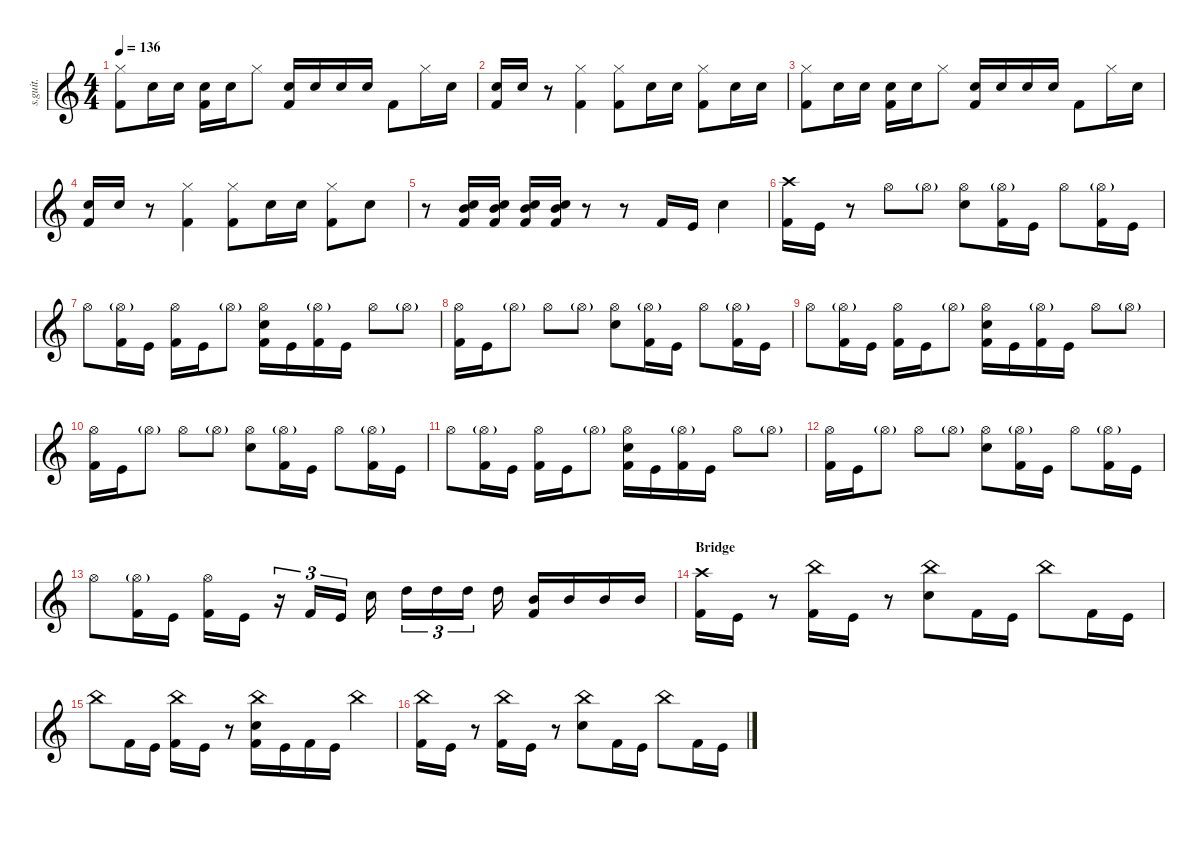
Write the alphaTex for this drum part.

\defaultSystemsLayout 4
\hideDynamics
\bracketExtendMode nobrackets
\track ("Joey Jordison" "s.guit.") {instrument percussion}
\staff {score}
\articulation defaults
\ts (4 4)
\tempo 136
\clef g2
\ks c
("Kick (hit) 2" "Hi-Hat (closed)").8{lyrics (0 "") lyrics (1 "") lyrics (2 "") lyrics (3 "") lyrics (4 "") dy fff} "Snare (hit) 2".16{lyrics (0 "") lyrics (1 "") lyrics (2 "") lyrics (3 "") lyrics (4 "")} "Snare (hit) 2".16{lyrics (0 "") lyrics (1 "") lyrics (2 "") lyrics (3 "") lyrics (4 "")} ("Snare (hit) 2" "Kick (hit) 2").16{lyrics (0 "") lyrics (1 "") lyrics (2 "") lyrics (3 "") lyrics (4 "")} "Snare (hit) 2".16{lyrics (0 "") lyrics (1 "") lyrics (2 "") lyrics (3 "") lyrics (4 "")} "Hi-Hat (closed)".8{lyrics (0 "") lyrics (1 "") lyrics (2 "") lyrics (3 "") lyrics (4 "")} ("Snare (hit) 2" "Kick (hit) 2").16{lyrics (0 "") lyrics (1 "") lyrics (2 "") lyrics (3 "") lyrics (4 "")} "Snare (hit) 2".16{lyrics (0 "") lyrics (1 "") lyrics (2 "") lyrics (3 "") lyrics (4 "")} "Snare (hit) 2".16{lyrics (0 "") lyrics (1 "") lyrics (2 "") lyrics (3 "") lyrics (4 "")} "Snare (hit) 2".16{lyrics (0 "") lyrics (1 "") lyrics (2 "") lyrics (3 "") lyrics (4 "")} "Kick (hit) 2".8{lyrics (0 "") lyrics (1 "") lyrics (2 "") lyrics (3 "") lyrics (4 "")} "Hi-Hat (closed)".16{lyrics (0 "") lyrics (1 "") lyrics (2 "") lyrics (3 "") lyrics (4 "")} "Snare (hit) 2".16{lyrics (0 "") lyrics (1 "") lyrics (2 "") lyrics (3 "") lyrics (4 "")} |
("Snare (hit) 2" "Kick (hit) 2").16{lyrics (0 "") lyrics (1 "") lyrics (2 "") lyrics (3 "") lyrics (4 "")} "Snare (hit) 2".16{lyrics (0 "") lyrics (1 "") lyrics (2 "") lyrics (3 "") lyrics (4 "")} r.8 ("Hi-Hat (closed)" "Kick (hit) 2").4{lyrics (0 "") lyrics (1 "") lyrics (2 "") lyrics (3 "") lyrics (4 "")} ("Kick (hit) 2" "Hi-Hat (closed)").8{lyrics (0 "") lyrics (1 "") lyrics (2 "") lyrics (3 "") lyrics (4 "")} "Snare (hit) 2".16{lyrics (0 "") lyrics (1 "") lyrics (2 "") lyrics (3 "") lyrics (4 "")} "Snare (hit) 2".16{lyrics (0 "") lyrics (1 "") lyrics (2 "") lyrics (3 "") lyrics (4 "")} ("Kick (hit) 2" "Hi-Hat (closed)").8{lyrics (0 "") lyrics (1 "") lyrics (2 "") lyrics (3 "") lyrics (4 "")} "Snare (hit) 2".16{lyrics (0 "") lyrics (1 "") lyrics (2 "") lyrics (3 "") lyrics (4 "")} "Snare (hit) 2".16{lyrics (0 "") lyrics (1 "") lyrics (2 "") lyrics (3 "") lyrics (4 "")} |
("Kick (hit) 2" "Hi-Hat (closed)").8{lyrics (0 "") lyrics (1 "") lyrics (2 "") lyrics (3 "") lyrics (4 "")} "Snare (hit) 2".16{lyrics (0 "") lyrics (1 "") lyrics (2 "") lyrics (3 "") lyrics (4 "")} "Snare (hit) 2".16{lyrics (0 "") lyrics (1 "") lyrics (2 "") lyrics (3 "") lyrics (4 "")} ("Snare (hit) 2" "Kick (hit) 2").16{lyrics (0 "") lyrics (1 "") lyrics (2 "") lyrics (3 "") lyrics (4 "")} "Snare (hit) 2".16{lyrics (0 "") lyrics (1 "") lyrics (2 "") lyrics (3 "") lyrics (4 "")} "Hi-Hat (closed)".8{lyrics (0 "") lyrics (1 "") lyrics (2 "") lyrics (3 "") lyrics (4 "")} ("Snare (hit) 2" "Kick (hit) 2").16{lyrics (0 "") lyrics (1 "") lyrics (2 "") lyrics (3 "") lyrics (4 "")} "Snare (hit) 2".16{lyrics (0 "") lyrics (1 "") lyrics (2 "") lyrics (3 "") lyrics (4 "")} "Snare (hit) 2".16{lyrics (0 "") lyrics (1 "") lyrics (2 "") lyrics (3 "") lyrics (4 "")} "Snare (hit) 2".16{lyrics (0 "") lyrics (1 "") lyrics (2 "") lyrics (3 "") lyrics (4 "")} "Kick (hit) 2".8{lyrics (0 "") lyrics (1 "") lyrics (2 "") lyrics (3 "") lyrics (4 "")} "Hi-Hat (closed)".16{lyrics (0 "") lyrics (1 "") lyrics (2 "") lyrics (3 "") lyrics (4 "")} "Snare (hit) 2".16{lyrics (0 "") lyrics (1 "") lyrics (2 "") lyrics (3 "") lyrics (4 "")} |
("Snare (hit) 2" "Kick (hit) 2").16{lyrics (0 "") lyrics (1 "") lyrics (2 "") lyrics (3 "") lyrics (4 "")} "Snare (hit) 2".16{lyrics (0 "") lyrics (1 "") lyrics (2 "") lyrics (3 "") lyrics (4 "")} r.8 ("Hi-Hat (closed)" "Kick (hit) 2").4{lyrics (0 "") lyrics (1 "") lyrics (2 "") lyrics (3 "") lyrics (4 "")} ("Kick (hit) 2" "Hi-Hat (closed)").8{lyrics (0 "") lyrics (1 "") lyrics (2 "") lyrics (3 "") lyrics (4 "")} "Snare (hit) 2".16{lyrics (0 "") lyrics (1 "") lyrics (2 "") lyrics (3 "") lyrics (4 "")} "Snare (hit) 2".16{lyrics (0 "") lyrics (1 "") lyrics (2 "") lyrics (3 "") lyrics (4 "")} ("Kick (hit) 2" "Hi-Hat (closed)").8{lyrics (0 "") lyrics (1 "") lyrics (2 "") lyrics (3 "") lyrics (4 "")} "Snare (hit) 2".8{lyrics (0 "") lyrics (1 "") lyrics (2 "") lyrics (3 "") lyrics (4 "")} |
r.8 ("Snare (hit) 2" "Kick (hit) 2" "Mid Tom (hit)").16{lyrics (0 "") lyrics (1 "") lyrics (2 "") lyrics (3 "") lyrics (4 "")} ("Snare (hit) 2" "Kick (hit) 2" "Mid Tom (hit)").16{lyrics (0 "") lyrics (1 "") lyrics (2 "") lyrics (3 "") lyrics (4 "")} ("Snare (hit) 2" "Kick (hit) 2" "Mid Tom (hit)").16{lyrics (0 "") lyrics (1 "") lyrics (2 "") lyrics (3 "") lyrics (4 "")} ("Snare (hit) 2" "Kick (hit) 2" "Mid Tom (hit)").16{lyrics (0 "") lyrics (1 "") lyrics (2 "") lyrics (3 "") lyrics (4 "")} r.8 r.8 "Kick (hit) 2".16{lyrics (0 "") lyrics (1 "") lyrics (2 "") lyrics (3 "") lyrics (4 "")} "Kick (hit)".16{lyrics (0 "") lyrics (1 "") lyrics (2 "") lyrics (3 "") lyrics (4 "")} "Snare (hit) 2".4{lyrics (0 "") lyrics (1 "") lyrics (2 "") lyrics (3 "") lyrics (4 "")} |
("Kick (hit) 2" "Crash high (hit)").16{lyrics (0 "") lyrics (1 "") lyrics (2 "") lyrics (3 "") lyrics (4 "")} "Kick (hit)".16{lyrics (0 "") lyrics (1 "") lyrics (2 "") lyrics (3 "") lyrics (4 "")} r.8 "Hi-Hat (open)".8{lyrics (0 "") lyrics (1 "") lyrics (2 "") lyrics (3 "") lyrics (4 "")} "Hi-Hat (open)"{g}.8{lyrics (0 "") lyrics (1 "") lyrics (2 "") lyrics (3 "") lyrics (4 "")} ("Hi-Hat (open)" "Snare (hit) 2").8{lyrics (0 "") lyrics (1 "") lyrics (2 "") lyrics (3 "") lyrics (4 "")} ("Kick (hit) 2" "Hi-Hat (open)"{g}).16{lyrics (0 "") lyrics (1 "") lyrics (2 "") lyrics (3 "") lyrics (4 "")} "Kick (hit)".16{lyrics (0 "") lyrics (1 "") lyrics (2 "") lyrics (3 "") lyrics (4 "")} "Hi-Hat (open)".8{lyrics (0 "") lyrics (1 "") lyrics (2 "") lyrics (3 "") lyrics (4 "")} ("Kick (hit) 2" "Hi-Hat (open)"{g}).16{lyrics (0 "") lyrics (1 "") lyrics (2 "") lyrics (3 "") lyrics (4 "")} "Kick (hit)".16{lyrics (0 "") lyrics (1 "") lyrics (2 "") lyrics (3 "") lyrics (4 "")} |
"Hi-Hat (open)".8{lyrics (0 "") lyrics (1 "") lyrics (2 "") lyrics (3 "") lyrics (4 "")} ("Kick (hit) 2" "Hi-Hat (open)"{g}).16{lyrics (0 "") lyrics (1 "") lyrics (2 "") lyrics (3 "") lyrics (4 "")} "Kick (hit)".16{lyrics (0 "") lyrics (1 "") lyrics (2 "") lyrics (3 "") lyrics (4 "")} ("Kick (hit) 2" "Hi-Hat (open)").16{lyrics (0 "") lyrics (1 "") lyrics (2 "") lyrics (3 "") lyrics (4 "")} "Kick (hit)".16{lyrics (0 "") lyrics (1 "") lyrics (2 "") lyrics (3 "") lyrics (4 "")} "Hi-Hat (open)"{g}.8{lyrics (0 "") lyrics (1 "") lyrics (2 "") lyrics (3 "") lyrics (4 "")} ("Snare (hit) 2" "Hi-Hat (open)" "Kick (hit) 2").16{lyrics (0 "") lyrics (1 "") lyrics (2 "") lyrics (3 "") lyrics (4 "")} "Kick (hit)".16{lyrics (0 "") lyrics (1 "") lyrics (2 "") lyrics (3 "") lyrics (4 "")} ("Kick (hit) 2" "Hi-Hat (open)"{g}).16{lyrics (0 "") lyrics (1 "") lyrics (2 "") lyrics (3 "") lyrics (4 "")} "Kick (hit)".16{lyrics (0 "") lyrics (1 "") lyrics (2 "") lyrics (3 "") lyrics (4 "")} "Hi-Hat (open)".8{lyrics (0 "") lyrics (1 "") lyrics (2 "") lyrics (3 "") lyrics (4 "")} "Hi-Hat (open)"{g}.8{lyrics (0 "") lyrics (1 "") lyrics (2 "") lyrics (3 "") lyrics (4 "")} |
("Kick (hit) 2" "Hi-Hat (open)").16{lyrics (0 "") lyrics (1 "") lyrics (2 "") lyrics (3 "") lyrics (4 "")} "Kick (hit)".16{lyrics (0 "") lyrics (1 "") lyrics (2 "") lyrics (3 "") lyrics (4 "")} "Hi-Hat (open)"{g}.8{lyrics (0 "") lyrics (1 "") lyrics (2 "") lyrics (3 "") lyrics (4 "")} "Hi-Hat (open)".8{lyrics (0 "") lyrics (1 "") lyrics (2 "") lyrics (3 "") lyrics (4 "")} "Hi-Hat (open)"{g}.8{lyrics (0 "") lyrics (1 "") lyrics (2 "") lyrics (3 "") lyrics (4 "")} ("Hi-Hat (open)" "Snare (hit) 2").8{lyrics (0 "") lyrics (1 "") lyrics (2 "") lyrics (3 "") lyrics (4 "")} ("Kick (hit) 2" "Hi-Hat (open)"{g}).16{lyrics (0 "") lyrics (1 "") lyrics (2 "") lyrics (3 "") lyrics (4 "")} "Kick (hit)".16{lyrics (0 "") lyrics (1 "") lyrics (2 "") lyrics (3 "") lyrics (4 "")} "Hi-Hat (open)".8{lyrics (0 "") lyrics (1 "") lyrics (2 "") lyrics (3 "") lyrics (4 "")} ("Kick (hit) 2" "Hi-Hat (open)"{g}).16{lyrics (0 "") lyrics (1 "") lyrics (2 "") lyrics (3 "") lyrics (4 "")} "Kick (hit)".16{lyrics (0 "") lyrics (1 "") lyrics (2 "") lyrics (3 "") lyrics (4 "")} |
"Hi-Hat (open)".8{lyrics (0 "") lyrics (1 "") lyrics (2 "") lyrics (3 "") lyrics (4 "")} ("Kick (hit) 2" "Hi-Hat (open)"{g}).16{lyrics (0 "") lyrics (1 "") lyrics (2 "") lyrics (3 "") lyrics (4 "")} "Kick (hit)".16{lyrics (0 "") lyrics (1 "") lyrics (2 "") lyrics (3 "") lyrics (4 "")} ("Kick (hit) 2" "Hi-Hat (open)").16{lyrics (0 "") lyrics (1 "") lyrics (2 "") lyrics (3 "") lyrics (4 "")} "Kick (hit)".16{lyrics (0 "") lyrics (1 "") lyrics (2 "") lyrics (3 "") lyrics (4 "")} "Hi-Hat (open)"{g}.8{lyrics (0 "") lyrics (1 "") lyrics (2 "") lyrics (3 "") lyrics (4 "")} ("Snare (hit) 2" "Hi-Hat (open)" "Kick (hit) 2").16{lyrics (0 "") lyrics (1 "") lyrics (2 "") lyrics (3 "") lyrics (4 "")} "Kick (hit)".16{lyrics (0 "") lyrics (1 "") lyrics (2 "") lyrics (3 "") lyrics (4 "")} ("Kick (hit) 2" "Hi-Hat (open)"{g}).16{lyrics (0 "") lyrics (1 "") lyrics (2 "") lyrics (3 "") lyrics (4 "")} "Kick (hit)".16{lyrics (0 "") lyrics (1 "") lyrics (2 "") lyrics (3 "") lyrics (4 "")} "Hi-Hat (open)".8{lyrics (0 "") lyrics (1 "") lyrics (2 "") lyrics (3 "") lyrics (4 "")} "Hi-Hat (open)"{g}.8{lyrics (0 "") lyrics (1 "") lyrics (2 "") lyrics (3 "") lyrics (4 "")} |
("Kick (hit) 2" "Hi-Hat (open)").16{lyrics (0 "") lyrics (1 "") lyrics (2 "") lyrics (3 "") lyrics (4 "")} "Kick (hit)".16{lyrics (0 "") lyrics (1 "") lyrics (2 "") lyrics (3 "") lyrics (4 "")} "Hi-Hat (open)"{g}.8{lyrics (0 "") lyrics (1 "") lyrics (2 "") lyrics (3 "") lyrics (4 "")} "Hi-Hat (open)".8{lyrics (0 "") lyrics (1 "") lyrics (2 "") lyrics (3 "") lyrics (4 "")} "Hi-Hat (open)"{g}.8{lyrics (0 "") lyrics (1 "") lyrics (2 "") lyrics (3 "") lyrics (4 "")} ("Hi-Hat (open)" "Snare (hit) 2").8{lyrics (0 "") lyrics (1 "") lyrics (2 "") lyrics (3 "") lyrics (4 "")} ("Kick (hit) 2" "Hi-Hat (open)"{g}).16{lyrics (0 "") lyrics (1 "") lyrics (2 "") lyrics (3 "") lyrics (4 "")} "Kick (hit)".16{lyrics (0 "") lyrics (1 "") lyrics (2 "") lyrics (3 "") lyrics (4 "")} "Hi-Hat (open)".8{lyrics (0 "") lyrics (1 "") lyrics (2 "") lyrics (3 "") lyrics (4 "")} ("Kick (hit) 2" "Hi-Hat (open)"{g}).16{lyrics (0 "") lyrics (1 "") lyrics (2 "") lyrics (3 "") lyrics (4 "")} "Kick (hit)".16{lyrics (0 "") lyrics (1 "") lyrics (2 "") lyrics (3 "") lyrics (4 "")} |
"Hi-Hat (open)".8{lyrics (0 "") lyrics (1 "") lyrics (2 "") lyrics (3 "") lyrics (4 "")} ("Kick (hit) 2" "Hi-Hat (open)"{g}).16{lyrics (0 "") lyrics (1 "") lyrics (2 "") lyrics (3 "") lyrics (4 "")} "Kick (hit)".16{lyrics (0 "") lyrics (1 "") lyrics (2 "") lyrics (3 "") lyrics (4 "")} ("Kick (hit) 2" "Hi-Hat (open)").16{lyrics (0 "") lyrics (1 "") lyrics (2 "") lyrics (3 "") lyrics (4 "")} "Kick (hit)".16{lyrics (0 "") lyrics (1 "") lyrics (2 "") lyrics (3 "") lyrics (4 "")} "Hi-Hat (open)"{g}.8{lyrics (0 "") lyrics (1 "") lyrics (2 "") lyrics (3 "") lyrics (4 "")} ("Snare (hit) 2" "Hi-Hat (open)" "Kick (hit) 2").16{lyrics (0 "") lyrics (1 "") lyrics (2 "") lyrics (3 "") lyrics (4 "")} "Kick (hit)".16{lyrics (0 "") lyrics (1 "") lyrics (2 "") lyrics (3 "") lyrics (4 "")} ("Kick (hit) 2" "Hi-Hat (open)"{g}).16{lyrics (0 "") lyrics (1 "") lyrics (2 "") lyrics (3 "") lyrics (4 "")} "Kick (hit)".16{lyrics (0 "") lyrics (1 "") lyrics (2 "") lyrics (3 "") lyrics (4 "")} "Hi-Hat (open)".8{lyrics (0 "") lyrics (1 "") lyrics (2 "") lyrics (3 "") lyrics (4 "")} "Hi-Hat (open)"{g}.8{lyrics (0 "") lyrics (1 "") lyrics (2 "") lyrics (3 "") lyrics (4 "")} |
("Kick (hit) 2" "Hi-Hat (open)").16{lyrics (0 "") lyrics (1 "") lyrics (2 "") lyrics (3 "") lyrics (4 "")} "Kick (hit)".16{lyrics (0 "") lyrics (1 "") lyrics (2 "") lyrics (3 "") lyrics (4 "")} "Hi-Hat (open)"{g}.8{lyrics (0 "") lyrics (1 "") lyrics (2 "") lyrics (3 "") lyrics (4 "")} "Hi-Hat (open)".8{lyrics (0 "") lyrics (1 "") lyrics (2 "") lyrics (3 "") lyrics (4 "")} "Hi-Hat (open)"{g}.8{lyrics (0 "") lyrics (1 "") lyrics (2 "") lyrics (3 "") lyrics (4 "")} ("Hi-Hat (open)" "Snare (hit) 2").8{lyrics (0 "") lyrics (1 "") lyrics (2 "") lyrics (3 "") lyrics (4 "")} ("Kick (hit) 2" "Hi-Hat (open)"{g}).16{lyrics (0 "") lyrics (1 "") lyrics (2 "") lyrics (3 "") lyrics (4 "")} "Kick (hit)".16{lyrics (0 "") lyrics (1 "") lyrics (2 "") lyrics (3 "") lyrics (4 "")} "Hi-Hat (open)".8{lyrics (0 "") lyrics (1 "") lyrics (2 "") lyrics (3 "") lyrics (4 "")} ("Kick (hit) 2" "Hi-Hat (open)"{g}).16{lyrics (0 "") lyrics (1 "") lyrics (2 "") lyrics (3 "") lyrics (4 "")} "Kick (hit)".16{lyrics (0 "") lyrics (1 "") lyrics (2 "") lyrics (3 "") lyrics (4 "")} |
"Hi-Hat (open)".8{lyrics (0 "") lyrics (1 "") lyrics (2 "") lyrics (3 "") lyrics (4 "")} ("Kick (hit) 2" "Hi-Hat (open)"{g}).16{lyrics (0 "") lyrics (1 "") lyrics (2 "") lyrics (3 "") lyrics (4 "")} "Kick (hit)".16{lyrics (0 "") lyrics (1 "") lyrics (2 "") lyrics (3 "") lyrics (4 "")} ("Kick (hit) 2" "Hi-Hat (open)").16{lyrics (0 "") lyrics (1 "") lyrics (2 "") lyrics (3 "") lyrics (4 "")} "Kick (hit)".16{lyrics (0 "") lyrics (1 "") lyrics (2 "") lyrics (3 "") lyrics (4 "")} r.16{tu (3 2)} "Kick (hit) 2".16{tu (3 2) lyrics (0 "") lyrics (1 "") lyrics (2 "") lyrics (3 "") lyrics (4 "")} "Kick (hit)".16{tu (3 2) lyrics (0 "") lyrics (1 "") lyrics (2 "") lyrics (3 "") lyrics (4 "")} "Snare (hit) 2".16{lyrics (0 "") lyrics (1 "") lyrics (2 "") lyrics (3 "") lyrics (4 "")} "High Tom (hit)".16{tu (3 2) lyrics (0 "") lyrics (1 "") lyrics (2 "") lyrics (3 "") lyrics (4 "")} "High Tom (hit)".16{tu (3 2) lyrics (0 "") lyrics (1 "") lyrics (2 "") lyrics (3 "") lyrics (4 "")} "High Tom (hit)".16{tu (3 2) lyrics (0 "") lyrics (1 "") lyrics (2 "") lyrics (3 "") lyrics (4 "")} "High Tom (hit)".16{lyrics (0 "") lyrics (1 "") lyrics (2 "") lyrics (3 "") lyrics (4 "")} ("Kick (hit) 2" "Mid Tom (hit)").16{lyrics (0 "") lyrics (1 "") lyrics (2 "") lyrics (3 "") lyrics (4 "")} "Mid Tom (hit)".16{lyrics (0 "") lyrics (1 "") lyrics (2 "") lyrics (3 "") lyrics (4 "")} "Mid Tom (hit)".16{lyrics (0 "") lyrics (1 "") lyrics (2 "") lyrics (3 "") lyrics (4 "")} "Mid Tom (hit)".16{lyrics (0 "") lyrics (1 "") lyrics (2 "") lyrics (3 "") lyrics (4 "")} |
\section ("" "Bridge")
("Kick (hit) 2" "Crash high (hit)").16{lyrics (0 "") lyrics (1 "") lyrics (2 "") lyrics (3 "") lyrics (4 "")} "Kick (hit)".16{lyrics (0 "") lyrics (1 "") lyrics (2 "") lyrics (3 "") lyrics (4 "")} r.8 ("Kick (hit) 2" "China (hit)").16{lyrics (0 "") lyrics (1 "") lyrics (2 "") lyrics (3 "") lyrics (4 "")} "Kick (hit)".16{lyrics (0 "") lyrics (1 "") lyrics (2 "") lyrics (3 "") lyrics (4 "")} r.8 ("Snare (hit) 2" "China (hit)").8{lyrics (0 "") lyrics (1 "") lyrics (2 "") lyrics (3 "") lyrics (4 "")} "Kick (hit) 2".16{lyrics (0 "") lyrics (1 "") lyrics (2 "") lyrics (3 "") lyrics (4 "")} "Kick (hit)".16{lyrics (0 "") lyrics (1 "") lyrics (2 "") lyrics (3 "") lyrics (4 "")} "China (hit)".8{lyrics (0 "") lyrics (1 "") lyrics (2 "") lyrics (3 "") lyrics (4 "")} "Kick (hit) 2".16{lyrics (0 "") lyrics (1 "") lyrics (2 "") lyrics (3 "") lyrics (4 "")} "Kick (hit)".16{lyrics (0 "") lyrics (1 "") lyrics (2 "") lyrics (3 "") lyrics (4 "")} |
"China (hit)".8{lyrics (0 "") lyrics (1 "") lyrics (2 "") lyrics (3 "") lyrics (4 "")} "Kick (hit) 2".16{lyrics (0 "") lyrics (1 "") lyrics (2 "") lyrics (3 "") lyrics (4 "")} "Kick (hit)".16{lyrics (0 "") lyrics (1 "") lyrics (2 "") lyrics (3 "") lyrics (4 "")} ("Kick (hit) 2" "China (hit)").16{lyrics (0 "") lyrics (1 "") lyrics (2 "") lyrics (3 "") lyrics (4 "")} "Kick (hit)".16{lyrics (0 "") lyrics (1 "") lyrics (2 "") lyrics (3 "") lyrics (4 "")} r.8 ("Snare (hit) 2" "Kick (hit) 2" "China (hit)").16{lyrics (0 "") lyrics (1 "") lyrics (2 "") lyrics (3 "") lyrics (4 "")} "Kick (hit)".16{lyrics (0 "") lyrics (1 "") lyrics (2 "") lyrics (3 "") lyrics (4 "")} "Kick (hit) 2".16{lyrics (0 "") lyrics (1 "") lyrics (2 "") lyrics (3 "") lyrics (4 "")} "Kick (hit)".16{lyrics (0 "") lyrics (1 "") lyrics (2 "") lyrics (3 "") lyrics (4 "")} "China (hit)".4{lyrics (0 "") lyrics (1 "") lyrics (2 "") lyrics (3 "") lyrics (4 "")} |
("Kick (hit) 2" "China (hit)").16{lyrics (0 "") lyrics (1 "") lyrics (2 "") lyrics (3 "") lyrics (4 "")} "Kick (hit)".16{lyrics (0 "") lyrics (1 "") lyrics (2 "") lyrics (3 "") lyrics (4 "")} r.8 ("Kick (hit) 2" "China (hit)").16{lyrics (0 "") lyrics (1 "") lyrics (2 "") lyrics (3 "") lyrics (4 "")} "Kick (hit)".16{lyrics (0 "") lyrics (1 "") lyrics (2 "") lyrics (3 "") lyrics (4 "")} r.8 ("Snare (hit) 2" "China (hit)").8{lyrics (0 "") lyrics (1 "") lyrics (2 "") lyrics (3 "") lyrics (4 "")} "Kick (hit) 2".16{lyrics (0 "") lyrics (1 "") lyrics (2 "") lyrics (3 "") lyrics (4 "")} "Kick (hit)".16{lyrics (0 "") lyrics (1 "") lyrics (2 "") lyrics (3 "") lyrics (4 "")} "China (hit)".8{lyrics (0 "") lyrics (1 "") lyrics (2 "") lyrics (3 "") lyrics (4 "")} "Kick (hit) 2".16{lyrics (0 "") lyrics (1 "") lyrics (2 "") lyrics (3 "") lyrics (4 "")} "Kick (hit)".16{lyrics (0 "") lyrics (1 "") lyrics (2 "") lyrics (3 "") lyrics (4 "")}
